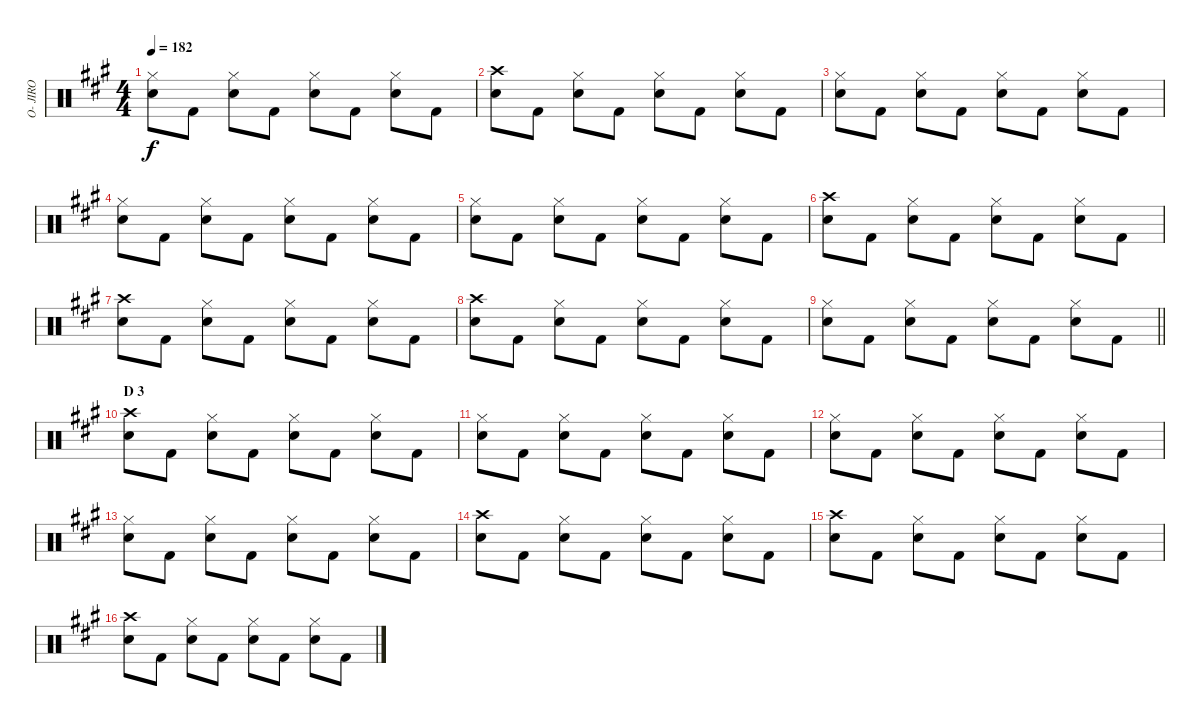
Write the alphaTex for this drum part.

\track ("O- JIRO" "O- JIRO") {instrument percussion}
\staff {score}
\articulation defaults
\ts (4 4)
\tempo 182
\clef neutral
\ks a
("Hi-Hat (closed)" "Snare (hit) 2").8{dy f} "Kick (hit) 2".8 ("Hi-Hat (closed)" "Snare (hit) 2").8 "Kick (hit) 2".8 ("Hi-Hat (closed)" "Snare (hit) 2").8 "Kick (hit) 2".8 ("Hi-Hat (closed)" "Snare (hit) 2").8 "Kick (hit) 2".8 |
("Crash high (hit)" "Snare (hit) 2").8 "Kick (hit) 2".8 ("Hi-Hat (closed)" "Snare (hit) 2").8 "Kick (hit) 2".8 ("Hi-Hat (closed)" "Snare (hit) 2").8 "Kick (hit) 2".8 ("Hi-Hat (closed)" "Snare (hit) 2").8 "Kick (hit) 2".8 |
("Hi-Hat (closed)" "Snare (hit) 2").8 "Kick (hit) 2".8 ("Hi-Hat (closed)" "Snare (hit) 2").8 "Kick (hit) 2".8 ("Hi-Hat (closed)" "Snare (hit) 2").8 "Kick (hit) 2".8 ("Hi-Hat (closed)" "Snare (hit) 2").8 "Kick (hit) 2".8 |
("Hi-Hat (closed)" "Snare (hit) 2").8 "Kick (hit) 2".8 ("Hi-Hat (closed)" "Snare (hit) 2").8 "Kick (hit) 2".8 ("Hi-Hat (closed)" "Snare (hit) 2").8 "Kick (hit) 2".8 ("Hi-Hat (closed)" "Snare (hit) 2").8 "Kick (hit) 2".8 |
("Hi-Hat (closed)" "Snare (hit) 2").8 "Kick (hit) 2".8 ("Hi-Hat (closed)" "Snare (hit) 2").8 "Kick (hit) 2".8 ("Hi-Hat (closed)" "Snare (hit) 2").8 "Kick (hit) 2".8 ("Hi-Hat (closed)" "Snare (hit) 2").8 "Kick (hit) 2".8 |
("Crash high (hit)" "Snare (hit) 2").8 "Kick (hit) 2".8 ("Hi-Hat (closed)" "Snare (hit) 2").8 "Kick (hit) 2".8 ("Hi-Hat (closed)" "Snare (hit) 2").8 "Kick (hit) 2".8 ("Hi-Hat (closed)" "Snare (hit) 2").8 "Kick (hit) 2".8 |
("Crash high (hit)" "Snare (hit) 2").8 "Kick (hit) 2".8 ("Hi-Hat (closed)" "Snare (hit) 2").8 "Kick (hit) 2".8 ("Hi-Hat (closed)" "Snare (hit) 2").8 "Kick (hit) 2".8 ("Hi-Hat (closed)" "Snare (hit) 2").8 "Kick (hit) 2".8 |
("Crash high (hit)" "Snare (hit) 2").8 "Kick (hit) 2".8 ("Hi-Hat (closed)" "Snare (hit) 2").8 "Kick (hit) 2".8 ("Hi-Hat (closed)" "Snare (hit) 2").8 "Kick (hit) 2".8 ("Hi-Hat (closed)" "Snare (hit) 2").8 "Kick (hit) 2".8 |
\barLineRight lightlight
("Hi-Hat (closed)" "Snare (hit) 2").8 "Kick (hit) 2".8 ("Hi-Hat (closed)" "Snare (hit) 2").8 "Kick (hit) 2".8 ("Hi-Hat (closed)" "Snare (hit) 2").8 "Kick (hit) 2".8 ("Hi-Hat (closed)" "Snare (hit) 2").8 "Kick (hit) 2".8 |
\section ("" "D 3")
("Crash high (hit)" "Snare (hit) 2").8 "Kick (hit) 2".8 ("Hi-Hat (closed)" "Snare (hit) 2").8 "Kick (hit) 2".8 ("Hi-Hat (closed)" "Snare (hit) 2").8 "Kick (hit) 2".8 ("Hi-Hat (closed)" "Snare (hit) 2").8 "Kick (hit) 2".8 |
("Hi-Hat (closed)" "Snare (hit) 2").8 "Kick (hit) 2".8 ("Hi-Hat (closed)" "Snare (hit) 2").8 "Kick (hit) 2".8 ("Hi-Hat (closed)" "Snare (hit) 2").8 "Kick (hit) 2".8 ("Hi-Hat (closed)" "Snare (hit) 2").8 "Kick (hit) 2".8 |
("Hi-Hat (closed)" "Snare (hit) 2").8 "Kick (hit) 2".8 ("Hi-Hat (closed)" "Snare (hit) 2").8 "Kick (hit) 2".8 ("Hi-Hat (closed)" "Snare (hit) 2").8 "Kick (hit) 2".8 ("Hi-Hat (closed)" "Snare (hit) 2").8 "Kick (hit) 2".8 |
("Hi-Hat (closed)" "Snare (hit) 2").8 "Kick (hit) 2".8 ("Hi-Hat (closed)" "Snare (hit) 2").8 "Kick (hit) 2".8 ("Hi-Hat (closed)" "Snare (hit) 2").8 "Kick (hit) 2".8 ("Hi-Hat (closed)" "Snare (hit) 2").8 "Kick (hit) 2".8 |
("Crash high (hit)" "Snare (hit) 2").8 "Kick (hit) 2".8 ("Hi-Hat (closed)" "Snare (hit) 2").8 "Kick (hit) 2".8 ("Hi-Hat (closed)" "Snare (hit) 2").8 "Kick (hit) 2".8 ("Hi-Hat (closed)" "Snare (hit) 2").8 "Kick (hit) 2".8 |
("Crash high (hit)" "Snare (hit) 2").8 "Kick (hit) 2".8 ("Hi-Hat (closed)" "Snare (hit) 2").8 "Kick (hit) 2".8 ("Hi-Hat (closed)" "Snare (hit) 2").8 "Kick (hit) 2".8 ("Hi-Hat (closed)" "Snare (hit) 2").8 "Kick (hit) 2".8 |
("Crash high (hit)" "Snare (hit) 2").8 "Kick (hit) 2".8 ("Hi-Hat (closed)" "Snare (hit) 2").8 "Kick (hit) 2".8 ("Hi-Hat (closed)" "Snare (hit) 2").8 "Kick (hit) 2".8 ("Hi-Hat (closed)" "Snare (hit) 2").8 "Kick (hit) 2".8
